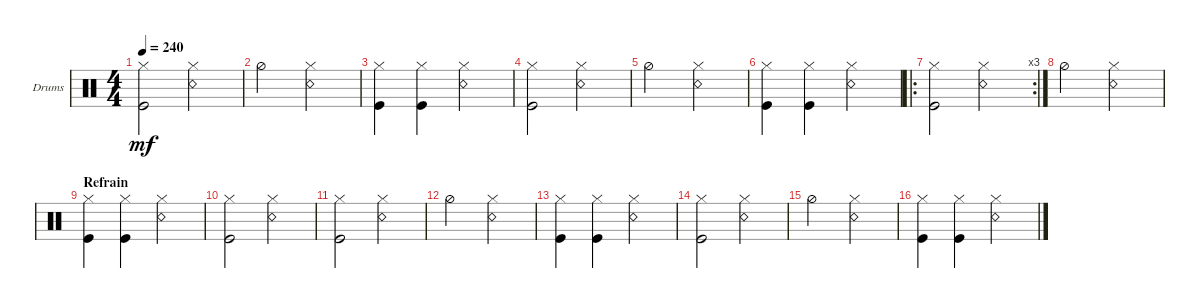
\defaultSystemsLayout 4
\bracketExtendMode groupsimilarinstruments
\firstSystemTrackNameOrientation horizontal
\otherSystemsTrackNameOrientation horizontal
\track ("Drumkit" "Drums") {instrument percussion}
\staff {score}
\articulation defaults
\ts (4 4)
\tempo 240
\clef neutral
\ks c
("Kick (hit)" "Hi-Hat (closed)").2{dy mf} ("Snare (rim shot)" "Hi-Hat (closed)").2 |
"Hi-Hat (half)".2 ("Snare (rim shot)" "Hi-Hat (closed)").2 |
("Kick (hit)" "Hi-Hat (closed)").4 ("Kick (hit)" "Hi-Hat (closed)").4 ("Snare (rim shot)" "Hi-Hat (closed)").2 |
("Kick (hit)" "Hi-Hat (closed)").2 ("Snare (rim shot)" "Hi-Hat (closed)").2 |
"Hi-Hat (half)".2 ("Snare (rim shot)" "Hi-Hat (closed)").2 |
("Kick (hit)" "Hi-Hat (closed)").4 ("Kick (hit)" "Hi-Hat (closed)").4 ("Snare (rim shot)" "Hi-Hat (closed)").2 |
\ro
\rc 3
("Kick (hit)" "Hi-Hat (closed)").2 ("Snare (rim shot)" "Hi-Hat (closed)").2 |
"Hi-Hat (half)".2 ("Snare (rim shot)" "Hi-Hat (closed)").2 |
\section ("" "Refrain")
("Kick (hit)" "Hi-Hat (closed)").4 ("Kick (hit)" "Hi-Hat (closed)").4 ("Snare (rim shot)" "Hi-Hat (closed)").2 |
("Kick (hit)" "Hi-Hat (closed)").2 ("Snare (rim shot)" "Hi-Hat (closed)").2 |
("Kick (hit)" "Hi-Hat (closed)").2 ("Snare (rim shot)" "Hi-Hat (closed)").2 |
"Hi-Hat (half)".2 ("Snare (rim shot)" "Hi-Hat (closed)").2 |
("Kick (hit)" "Hi-Hat (closed)").4 ("Kick (hit)" "Hi-Hat (closed)").4 ("Snare (rim shot)" "Hi-Hat (closed)").2 |
("Kick (hit)" "Hi-Hat (closed)").2 ("Snare (rim shot)" "Hi-Hat (closed)").2 |
"Hi-Hat (half)".2 ("Snare (rim shot)" "Hi-Hat (closed)").2 |
("Kick (hit)" "Hi-Hat (closed)").4 ("Kick (hit)" "Hi-Hat (closed)").4 ("Snare (rim shot)" "Hi-Hat (closed)").2
